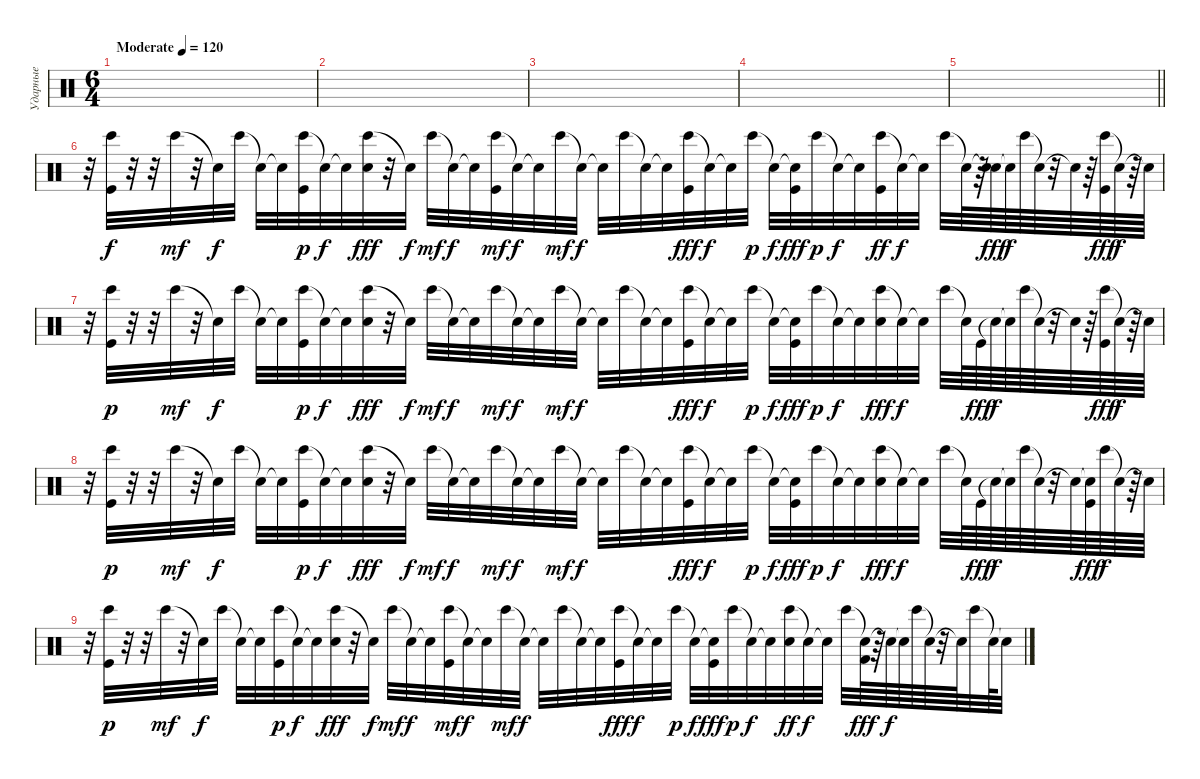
\track ("Ударные" "Ударные") {mute instrument percussion}
\staff {score}
\articulation defaults
\ts (6 4)
\tempo (120 "Moderate")
\tempo 107
\tempo (120 "Moderate")
\clef neutral
\ks c
|
|
|
|
\barLineRight lightlight
|
\section ("" "")
r.32 ("Bongo High (hit)" "Kick (hit)").32 r.32 r.32 "Bongo High (hit)".32{dy mf} r.32 "Snare (hit)"{t}.32{dy f} "Bongo High (hit)".32 "Snare (hit)"{t}.32 "Snare (hit)"{t}.32 ("Bongo High (hit)" "Kick (hit)").32{dy p} "Snare (hit)"{t}.32{dy f} "Snare (hit)"{t}.32 ("Bongo High (hit)" "Electric Snare (hit)").32{dy fff} r.32 "Snare (hit)"{t}.32{dy f} "Bongo High (hit)".32{dy mf} "Snare (hit)"{t}.32{dy f} "Snare (hit)"{t}.32 ("Bongo High (hit)" "Kick (hit)").32{dy mf} "Snare (hit)"{t}.32{dy f} "Snare (hit)"{t}.32 "Bongo High (hit)".32{dy mf} "Snare (hit)"{t}.32{dy f} "Snare (hit)"{t}.32 "Bongo High (hit)".32 "Snare (hit)"{t}.32 "Snare (hit)"{t}.32 ("Bongo High (hit)" "Kick (hit)").32{dy fff} "Snare (hit)"{t}.32{dy f} "Snare (hit)"{t}.32 "Bongo High (hit)".32{dy p} "Snare (hit)"{t}.32{dy f} ("Snare (hit)"{t} "Kick (hit)").32{dy fff} "Bongo High (hit)".32{dy p} "Snare (hit)"{t}.32{dy f} "Snare (hit)"{t}.32 ("Bongo High (hit)" "Kick (hit)").32{dy ff} "Snare (hit)"{t}.32{dy f} "Snare (hit)"{t}.32 "Bongo High (hit)".32 "Snare (hit)"{t}.64 r.64 ("Snare (hit)"{t} "Electric Snare (hit)").64{dy fff} "Snare (hit)"{t}.64{dy f} "Bongo High (hit)".64 "Snare (hit)"{t}.64 r.32 "Snare (hit)"{t}.64 r.64 ("Bongo High (hit)" "Kick (hit)").64{dy fff} "Snare (hit)"{t}.64{dy f} r.64 "Snare (hit)"{t}.64 |
r.32 ("Bongo High (hit)" "Kick (hit)").32{dy p} r.32 r.32 "Bongo High (hit)".32{dy mf} r.32 "Snare (hit)"{t}.32{dy f} "Bongo High (hit)".32 "Snare (hit)"{t}.32 "Snare (hit)"{t}.32 ("Bongo High (hit)" "Kick (hit)").32{dy p} "Snare (hit)"{t}.32{dy f} "Snare (hit)"{t}.32 ("Bongo High (hit)" "Electric Snare (hit)").32{dy fff} r.32 "Snare (hit)"{t}.32{dy f} "Bongo High (hit)".32{dy mf} "Snare (hit)"{t}.32{dy f} "Snare (hit)"{t}.32 "Bongo High (hit)".32{dy mf} "Snare (hit)"{t}.32{dy f} "Snare (hit)"{t}.32 "Bongo High (hit)".32{dy mf} "Snare (hit)"{t}.32{dy f} "Snare (hit)"{t}.32 "Bongo High (hit)".32 "Snare (hit)"{t}.32 "Snare (hit)"{t}.32 ("Bongo High (hit)" "Kick (hit)").32{dy fff} "Snare (hit)"{t}.32{dy f} "Snare (hit)"{t}.32 "Bongo High (hit)".32{dy p} "Snare (hit)"{t}.32{dy f} ("Snare (hit)"{t} "Kick (hit)").32{dy fff} "Bongo High (hit)".32{dy p} "Snare (hit)"{t}.32{dy f} "Snare (hit)"{t}.32 ("Bongo High (hit)" "Electric Snare (hit)").32{dy fff} "Snare (hit)"{t}.32{dy f} "Snare (hit)"{t}.32 "Bongo High (hit)".32 "Snare (hit)"{t}.64 "Kick (hit)".64{dy fff} "Snare (hit)"{t}.64{dy f} "Snare (hit)"{t}.64 "Bongo High (hit)".64 "Snare (hit)"{t}.64 r.32 "Snare (hit)"{t}.64 r.64 ("Bongo High (hit)" "Kick (hit)").64{dy fff} "Snare (hit)"{t}.64{dy f} r.64 "Snare (hit)"{t}.64 |
r.32 ("Bongo High (hit)" "Kick (hit)").32{dy p} r.32 r.32 "Bongo High (hit)".32{dy mf} r.32 "Snare (hit)"{t}.32{dy f} "Bongo High (hit)".32 "Snare (hit)"{t}.32 "Snare (hit)"{t}.32 ("Bongo High (hit)" "Kick (hit)").32{dy p} "Snare (hit)"{t}.32{dy f} "Snare (hit)"{t}.32 ("Bongo High (hit)" "Electric Snare (hit)").32{dy fff} r.32 "Snare (hit)"{t}.32{dy f} "Bongo High (hit)".32{dy mf} "Snare (hit)"{t}.32{dy f} "Snare (hit)"{t}.32 "Bongo High (hit)".32{dy mf} "Snare (hit)"{t}.32{dy f} "Snare (hit)"{t}.32 "Bongo High (hit)".32{dy mf} "Snare (hit)"{t}.32{dy f} "Snare (hit)"{t}.32 "Bongo High (hit)".32 "Snare (hit)"{t}.32 "Snare (hit)"{t}.32 ("Bongo High (hit)" "Kick (hit)").32{dy fff} "Snare (hit)"{t}.32{dy f} "Snare (hit)"{t}.32 "Bongo High (hit)".32{dy p} "Snare (hit)"{t}.32{dy f} ("Snare (hit)"{t} "Kick (hit)").32{dy fff} "Bongo High (hit)".32{dy p} "Snare (hit)"{t}.32{dy f} "Snare (hit)"{t}.32 ("Bongo High (hit)" "Electric Snare (hit)").32{dy fff} "Snare (hit)"{t}.32{dy f} "Snare (hit)"{t}.32 "Bongo High (hit)".32 "Snare (hit)"{t}.64 "Kick (hit)".64{dy fff} "Snare (hit)"{t}.64{dy f} "Snare (hit)"{t}.64 "Bongo High (hit)".64 "Snare (hit)"{t}.64 r.32 "Snare (hit)"{t}.64 ("Snare (hit)"{t} "Kick (hit)").64{dy fff} "Bongo High (hit)".64{dy f} "Snare (hit)"{t}.64 r.64 "Snare (hit)"{t}.64 |
r.32 ("Bongo High (hit)" "Kick (hit)").32{dy p} r.32 r.32 "Bongo High (hit)".32{dy mf} r.32 "Snare (hit)"{t}.32{dy f} "Bongo High (hit)".32 "Snare (hit)"{t}.32 "Snare (hit)"{t}.32 ("Bongo High (hit)" "Kick (hit)").32{dy p} "Snare (hit)"{t}.32{dy f} "Snare (hit)"{t}.32 ("Bongo High (hit)" "Electric Snare (hit)").32{dy fff} r.32 "Snare (hit)"{t}.32{dy f} "Bongo High (hit)".32{dy mf} "Snare (hit)"{t}.32{dy f} "Snare (hit)"{t}.32 ("Bongo High (hit)" "Kick (hit)").32{dy mf} "Snare (hit)"{t}.32{dy f} "Snare (hit)"{t}.32 "Bongo High (hit)".32{dy mf} "Snare (hit)"{t}.32{dy f} "Snare (hit)"{t}.32 "Bongo High (hit)".32 "Snare (hit)"{t}.32 "Snare (hit)"{t}.32 ("Bongo High (hit)" "Kick (hit)").32{dy fff} "Snare (hit)"{t}.32{dy f} "Snare (hit)"{t}.32 "Bongo High (hit)".32{dy p} "Snare (hit)"{t}.32{dy f} ("Snare (hit)"{t} "Kick (hit)").32{dy fff} "Bongo High (hit)".32{dy p} "Snare (hit)"{t}.32{dy f} "Snare (hit)"{t}.32 ("Bongo High (hit)" "Electric Snare (hit)").32{dy ff} "Snare (hit)"{t}.32{dy f} "Snare (hit)"{t}.32 "Bongo High (hit)".32 ("Snare (hit)"{t} "Kick (hit) 2").64{dy fff} r.64 "Snare (hit)"{t}.64{dy f} "Snare (hit)"{t}.64 "Bongo High (hit)".64 "Snare (hit)"{t}.64 r.32 "Snare (hit)"{t}.64 "Bongo High (hit)".32 "Snare (hit)"{t}.64 "Snare (hit)"{t}.32
